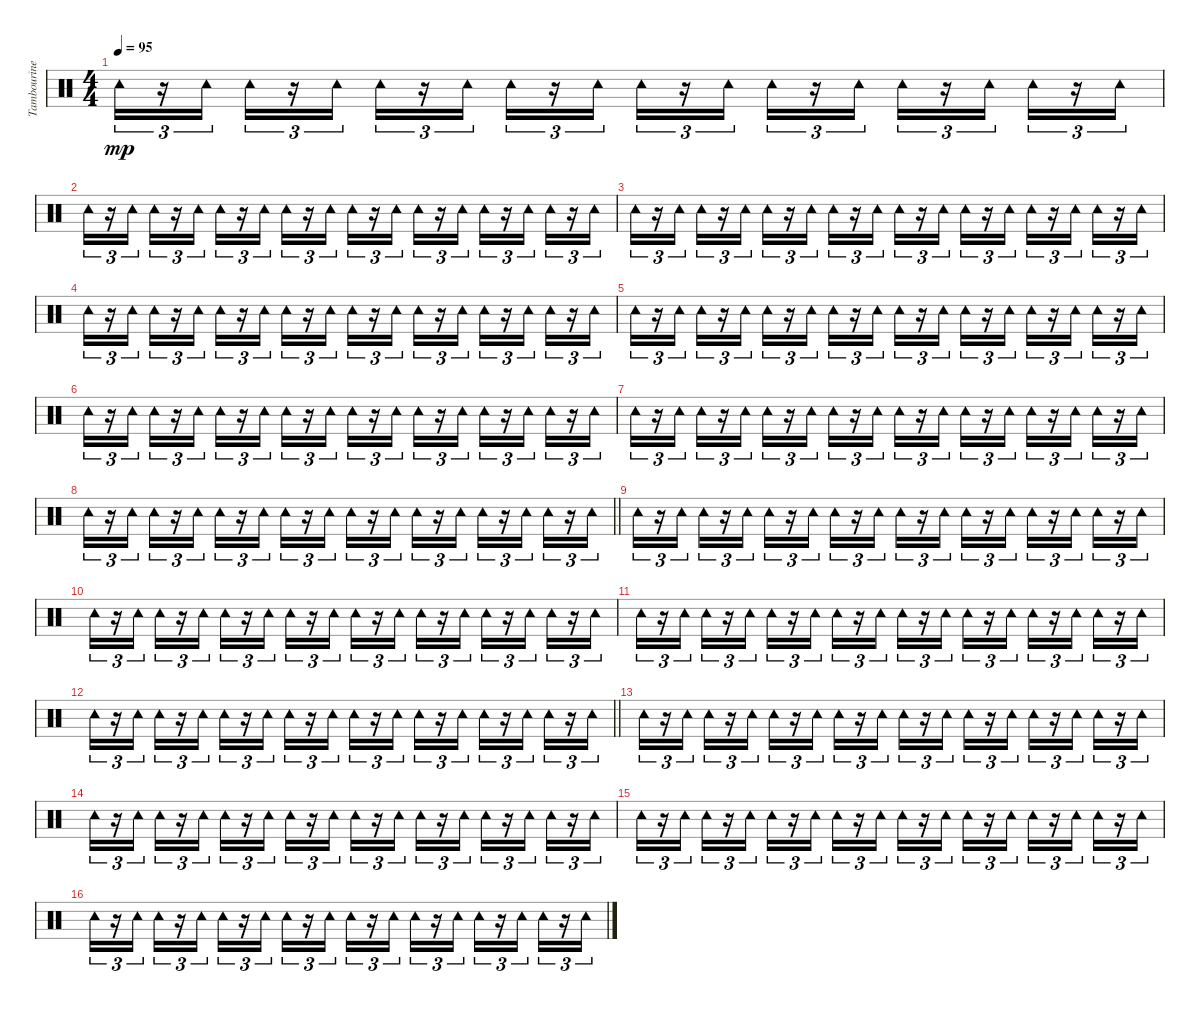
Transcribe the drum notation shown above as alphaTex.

\track ("Tambourine" "Tambourine") {instrument percussion}
\staff {score}
\articulation defaults
\ts (4 4)
\tempo 95
\clef neutral
\ks c "Tambourine (hit)".16{tu (3 2) dy mp}
r.16{tu (3 2)} "Tambourine (hit)".16{tu (3 2)} "Tambourine (hit)".16{tu (3 2)} r.16{tu (3 2)} "Tambourine (hit)".16{tu (3 2)} "Tambourine (hit)".16{tu (3 2)} r.16{tu (3 2)} "Tambourine (hit)".16{tu (3 2)} "Tambourine (hit)".16{tu (3 2)} r.16{tu (3 2)} "Tambourine (hit)".16{tu (3 2)} "Tambourine (hit)".16{tu (3 2)} r.16{tu (3 2)} "Tambourine (hit)".16{tu (3 2)} "Tambourine (hit)".16{tu (3 2)} r.16{tu (3 2)} "Tambourine (hit)".16{tu (3 2)} "Tambourine (hit)".16{tu (3 2)} r.16{tu (3 2)} "Tambourine (hit)".16{tu (3 2)} "Tambourine (hit)".16{tu (3 2)} r.16{tu (3 2)} "Tambourine (hit)".16{tu (3 2)} |
"Tambourine (hit)".16{tu (3 2)} r.16{tu (3 2)} "Tambourine (hit)".16{tu (3 2)} "Tambourine (hit)".16{tu (3 2)} r.16{tu (3 2)} "Tambourine (hit)".16{tu (3 2)} "Tambourine (hit)".16{tu (3 2)} r.16{tu (3 2)} "Tambourine (hit)".16{tu (3 2)} "Tambourine (hit)".16{tu (3 2)} r.16{tu (3 2)} "Tambourine (hit)".16{tu (3 2)} "Tambourine (hit)".16{tu (3 2)} r.16{tu (3 2)} "Tambourine (hit)".16{tu (3 2)} "Tambourine (hit)".16{tu (3 2)} r.16{tu (3 2)} "Tambourine (hit)".16{tu (3 2)} "Tambourine (hit)".16{tu (3 2)} r.16{tu (3 2)} "Tambourine (hit)".16{tu (3 2)} "Tambourine (hit)".16{tu (3 2)} r.16{tu (3 2)} "Tambourine (hit)".16{tu (3 2)} |
"Tambourine (hit)".16{tu (3 2)} r.16{tu (3 2)} "Tambourine (hit)".16{tu (3 2)} "Tambourine (hit)".16{tu (3 2)} r.16{tu (3 2)} "Tambourine (hit)".16{tu (3 2)} "Tambourine (hit)".16{tu (3 2)} r.16{tu (3 2)} "Tambourine (hit)".16{tu (3 2)} "Tambourine (hit)".16{tu (3 2)} r.16{tu (3 2)} "Tambourine (hit)".16{tu (3 2)} "Tambourine (hit)".16{tu (3 2)} r.16{tu (3 2)} "Tambourine (hit)".16{tu (3 2)} "Tambourine (hit)".16{tu (3 2)} r.16{tu (3 2)} "Tambourine (hit)".16{tu (3 2)} "Tambourine (hit)".16{tu (3 2)} r.16{tu (3 2)} "Tambourine (hit)".16{tu (3 2)} "Tambourine (hit)".16{tu (3 2)} r.16{tu (3 2)} "Tambourine (hit)".16{tu (3 2)} |
"Tambourine (hit)".16{tu (3 2)} r.16{tu (3 2)} "Tambourine (hit)".16{tu (3 2)} "Tambourine (hit)".16{tu (3 2)} r.16{tu (3 2)} "Tambourine (hit)".16{tu (3 2)} "Tambourine (hit)".16{tu (3 2)} r.16{tu (3 2)} "Tambourine (hit)".16{tu (3 2)} "Tambourine (hit)".16{tu (3 2)} r.16{tu (3 2)} "Tambourine (hit)".16{tu (3 2)} "Tambourine (hit)".16{tu (3 2)} r.16{tu (3 2)} "Tambourine (hit)".16{tu (3 2)} "Tambourine (hit)".16{tu (3 2)} r.16{tu (3 2)} "Tambourine (hit)".16{tu (3 2)} "Tambourine (hit)".16{tu (3 2)} r.16{tu (3 2)} "Tambourine (hit)".16{tu (3 2)} "Tambourine (hit)".16{tu (3 2)} r.16{tu (3 2)} "Tambourine (hit)".16{tu (3 2)} |
"Tambourine (hit)".16{tu (3 2)} r.16{tu (3 2)} "Tambourine (hit)".16{tu (3 2)} "Tambourine (hit)".16{tu (3 2)} r.16{tu (3 2)} "Tambourine (hit)".16{tu (3 2)} "Tambourine (hit)".16{tu (3 2)} r.16{tu (3 2)} "Tambourine (hit)".16{tu (3 2)} "Tambourine (hit)".16{tu (3 2)} r.16{tu (3 2)} "Tambourine (hit)".16{tu (3 2)} "Tambourine (hit)".16{tu (3 2)} r.16{tu (3 2)} "Tambourine (hit)".16{tu (3 2)} "Tambourine (hit)".16{tu (3 2)} r.16{tu (3 2)} "Tambourine (hit)".16{tu (3 2)} "Tambourine (hit)".16{tu (3 2)} r.16{tu (3 2)} "Tambourine (hit)".16{tu (3 2)} "Tambourine (hit)".16{tu (3 2)} r.16{tu (3 2)} "Tambourine (hit)".16{tu (3 2)} |
"Tambourine (hit)".16{tu (3 2)} r.16{tu (3 2)} "Tambourine (hit)".16{tu (3 2)} "Tambourine (hit)".16{tu (3 2)} r.16{tu (3 2)} "Tambourine (hit)".16{tu (3 2)} "Tambourine (hit)".16{tu (3 2)} r.16{tu (3 2)} "Tambourine (hit)".16{tu (3 2)} "Tambourine (hit)".16{tu (3 2)} r.16{tu (3 2)} "Tambourine (hit)".16{tu (3 2)} "Tambourine (hit)".16{tu (3 2)} r.16{tu (3 2)} "Tambourine (hit)".16{tu (3 2)} "Tambourine (hit)".16{tu (3 2)} r.16{tu (3 2)} "Tambourine (hit)".16{tu (3 2)} "Tambourine (hit)".16{tu (3 2)} r.16{tu (3 2)} "Tambourine (hit)".16{tu (3 2)} "Tambourine (hit)".16{tu (3 2)} r.16{tu (3 2)} "Tambourine (hit)".16{tu (3 2)} |
"Tambourine (hit)".16{tu (3 2)} r.16{tu (3 2)} "Tambourine (hit)".16{tu (3 2)} "Tambourine (hit)".16{tu (3 2)} r.16{tu (3 2)} "Tambourine (hit)".16{tu (3 2)} "Tambourine (hit)".16{tu (3 2)} r.16{tu (3 2)} "Tambourine (hit)".16{tu (3 2)} "Tambourine (hit)".16{tu (3 2)} r.16{tu (3 2)} "Tambourine (hit)".16{tu (3 2)} "Tambourine (hit)".16{tu (3 2)} r.16{tu (3 2)} "Tambourine (hit)".16{tu (3 2)} "Tambourine (hit)".16{tu (3 2)} r.16{tu (3 2)} "Tambourine (hit)".16{tu (3 2)} "Tambourine (hit)".16{tu (3 2)} r.16{tu (3 2)} "Tambourine (hit)".16{tu (3 2)} "Tambourine (hit)".16{tu (3 2)} r.16{tu (3 2)} "Tambourine (hit)".16{tu (3 2)} |
\barLineRight lightlight "Tambourine (hit)".16{tu (3 2)}
r.16{tu (3 2)} "Tambourine (hit)".16{tu (3 2)} "Tambourine (hit)".16{tu (3 2)} r.16{tu (3 2)} "Tambourine (hit)".16{tu (3 2)} "Tambourine (hit)".16{tu (3 2)} r.16{tu (3 2)} "Tambourine (hit)".16{tu (3 2)} "Tambourine (hit)".16{tu (3 2)} r.16{tu (3 2)} "Tambourine (hit)".16{tu (3 2)} "Tambourine (hit)".16{tu (3 2)} r.16{tu (3 2)} "Tambourine (hit)".16{tu (3 2)} "Tambourine (hit)".16{tu (3 2)} r.16{tu (3 2)} "Tambourine (hit)".16{tu (3 2)} "Tambourine (hit)".16{tu (3 2)} r.16{tu (3 2)} "Tambourine (hit)".16{tu (3 2)} "Tambourine (hit)".16{tu (3 2)} r.16{tu (3 2)} "Tambourine (hit)".16{tu (3 2)} |
"Tambourine (hit)".16{tu (3 2)} r.16{tu (3 2)} "Tambourine (hit)".16{tu (3 2)} "Tambourine (hit)".16{tu (3 2)} r.16{tu (3 2)} "Tambourine (hit)".16{tu (3 2)} "Tambourine (hit)".16{tu (3 2)} r.16{tu (3 2)} "Tambourine (hit)".16{tu (3 2)} "Tambourine (hit)".16{tu (3 2)} r.16{tu (3 2)} "Tambourine (hit)".16{tu (3 2)} "Tambourine (hit)".16{tu (3 2)} r.16{tu (3 2)} "Tambourine (hit)".16{tu (3 2)} "Tambourine (hit)".16{tu (3 2)} r.16{tu (3 2)} "Tambourine (hit)".16{tu (3 2)} "Tambourine (hit)".16{tu (3 2)} r.16{tu (3 2)} "Tambourine (hit)".16{tu (3 2)} "Tambourine (hit)".16{tu (3 2)} r.16{tu (3 2)} "Tambourine (hit)".16{tu (3 2)} |
"Tambourine (hit)".16{tu (3 2)} r.16{tu (3 2)} "Tambourine (hit)".16{tu (3 2)} "Tambourine (hit)".16{tu (3 2)} r.16{tu (3 2)} "Tambourine (hit)".16{tu (3 2)} "Tambourine (hit)".16{tu (3 2)} r.16{tu (3 2)} "Tambourine (hit)".16{tu (3 2)} "Tambourine (hit)".16{tu (3 2)} r.16{tu (3 2)} "Tambourine (hit)".16{tu (3 2)} "Tambourine (hit)".16{tu (3 2)} r.16{tu (3 2)} "Tambourine (hit)".16{tu (3 2)} "Tambourine (hit)".16{tu (3 2)} r.16{tu (3 2)} "Tambourine (hit)".16{tu (3 2)} "Tambourine (hit)".16{tu (3 2)} r.16{tu (3 2)} "Tambourine (hit)".16{tu (3 2)} "Tambourine (hit)".16{tu (3 2)} r.16{tu (3 2)} "Tambourine (hit)".16{tu (3 2)} |
"Tambourine (hit)".16{tu (3 2)} r.16{tu (3 2)} "Tambourine (hit)".16{tu (3 2)} "Tambourine (hit)".16{tu (3 2)} r.16{tu (3 2)} "Tambourine (hit)".16{tu (3 2)} "Tambourine (hit)".16{tu (3 2)} r.16{tu (3 2)} "Tambourine (hit)".16{tu (3 2)} "Tambourine (hit)".16{tu (3 2)} r.16{tu (3 2)} "Tambourine (hit)".16{tu (3 2)} "Tambourine (hit)".16{tu (3 2)} r.16{tu (3 2)} "Tambourine (hit)".16{tu (3 2)} "Tambourine (hit)".16{tu (3 2)} r.16{tu (3 2)} "Tambourine (hit)".16{tu (3 2)} "Tambourine (hit)".16{tu (3 2)} r.16{tu (3 2)} "Tambourine (hit)".16{tu (3 2)} "Tambourine (hit)".16{tu (3 2)} r.16{tu (3 2)} "Tambourine (hit)".16{tu (3 2)} |
\barLineRight lightlight "Tambourine (hit)".16{tu (3 2)}
r.16{tu (3 2)} "Tambourine (hit)".16{tu (3 2)} "Tambourine (hit)".16{tu (3 2)} r.16{tu (3 2)} "Tambourine (hit)".16{tu (3 2)} "Tambourine (hit)".16{tu (3 2)} r.16{tu (3 2)} "Tambourine (hit)".16{tu (3 2)} "Tambourine (hit)".16{tu (3 2)} r.16{tu (3 2)} "Tambourine (hit)".16{tu (3 2)} "Tambourine (hit)".16{tu (3 2)} r.16{tu (3 2)} "Tambourine (hit)".16{tu (3 2)} "Tambourine (hit)".16{tu (3 2)} r.16{tu (3 2)} "Tambourine (hit)".16{tu (3 2)} "Tambourine (hit)".16{tu (3 2)} r.16{tu (3 2)} "Tambourine (hit)".16{tu (3 2)} "Tambourine (hit)".16{tu (3 2)} r.16{tu (3 2)} "Tambourine (hit)".16{tu (3 2)} |
"Tambourine (hit)".16{tu (3 2)} r.16{tu (3 2)} "Tambourine (hit)".16{tu (3 2)} "Tambourine (hit)".16{tu (3 2)} r.16{tu (3 2)} "Tambourine (hit)".16{tu (3 2)} "Tambourine (hit)".16{tu (3 2)} r.16{tu (3 2)} "Tambourine (hit)".16{tu (3 2)} "Tambourine (hit)".16{tu (3 2)} r.16{tu (3 2)} "Tambourine (hit)".16{tu (3 2)} "Tambourine (hit)".16{tu (3 2)} r.16{tu (3 2)} "Tambourine (hit)".16{tu (3 2)} "Tambourine (hit)".16{tu (3 2)} r.16{tu (3 2)} "Tambourine (hit)".16{tu (3 2)} "Tambourine (hit)".16{tu (3 2)} r.16{tu (3 2)} "Tambourine (hit)".16{tu (3 2)} "Tambourine (hit)".16{tu (3 2)} r.16{tu (3 2)} "Tambourine (hit)".16{tu (3 2)} |
"Tambourine (hit)".16{tu (3 2)} r.16{tu (3 2)} "Tambourine (hit)".16{tu (3 2)} "Tambourine (hit)".16{tu (3 2)} r.16{tu (3 2)} "Tambourine (hit)".16{tu (3 2)} "Tambourine (hit)".16{tu (3 2)} r.16{tu (3 2)} "Tambourine (hit)".16{tu (3 2)} "Tambourine (hit)".16{tu (3 2)} r.16{tu (3 2)} "Tambourine (hit)".16{tu (3 2)} "Tambourine (hit)".16{tu (3 2)} r.16{tu (3 2)} "Tambourine (hit)".16{tu (3 2)} "Tambourine (hit)".16{tu (3 2)} r.16{tu (3 2)} "Tambourine (hit)".16{tu (3 2)} "Tambourine (hit)".16{tu (3 2)} r.16{tu (3 2)} "Tambourine (hit)".16{tu (3 2)} "Tambourine (hit)".16{tu (3 2)} r.16{tu (3 2)} "Tambourine (hit)".16{tu (3 2)} |
"Tambourine (hit)".16{tu (3 2)} r.16{tu (3 2)} "Tambourine (hit)".16{tu (3 2)} "Tambourine (hit)".16{tu (3 2)} r.16{tu (3 2)} "Tambourine (hit)".16{tu (3 2)} "Tambourine (hit)".16{tu (3 2)} r.16{tu (3 2)} "Tambourine (hit)".16{tu (3 2)} "Tambourine (hit)".16{tu (3 2)} r.16{tu (3 2)} "Tambourine (hit)".16{tu (3 2)} "Tambourine (hit)".16{tu (3 2)} r.16{tu (3 2)} "Tambourine (hit)".16{tu (3 2)} "Tambourine (hit)".16{tu (3 2)} r.16{tu (3 2)} "Tambourine (hit)".16{tu (3 2)} "Tambourine (hit)".16{tu (3 2)} r.16{tu (3 2)} "Tambourine (hit)".16{tu (3 2)} "Tambourine (hit)".16{tu (3 2)} r.16{tu (3 2)} "Tambourine (hit)".16{tu (3 2)} |
"Tambourine (hit)".16{tu (3 2)} r.16{tu (3 2)} "Tambourine (hit)".16{tu (3 2)} "Tambourine (hit)".16{tu (3 2)} r.16{tu (3 2)} "Tambourine (hit)".16{tu (3 2)} "Tambourine (hit)".16{tu (3 2)} r.16{tu (3 2)} "Tambourine (hit)".16{tu (3 2)} "Tambourine (hit)".16{tu (3 2)} r.16{tu (3 2)} "Tambourine (hit)".16{tu (3 2)} "Tambourine (hit)".16{tu (3 2)} r.16{tu (3 2)} "Tambourine (hit)".16{tu (3 2)} "Tambourine (hit)".16{tu (3 2)} r.16{tu (3 2)} "Tambourine (hit)".16{tu (3 2)} "Tambourine (hit)".16{tu (3 2)} r.16{tu (3 2)} "Tambourine (hit)".16{tu (3 2)} "Tambourine (hit)".16{tu (3 2)} r.16{tu (3 2)} "Tambourine (hit)".16{tu (3 2)}
